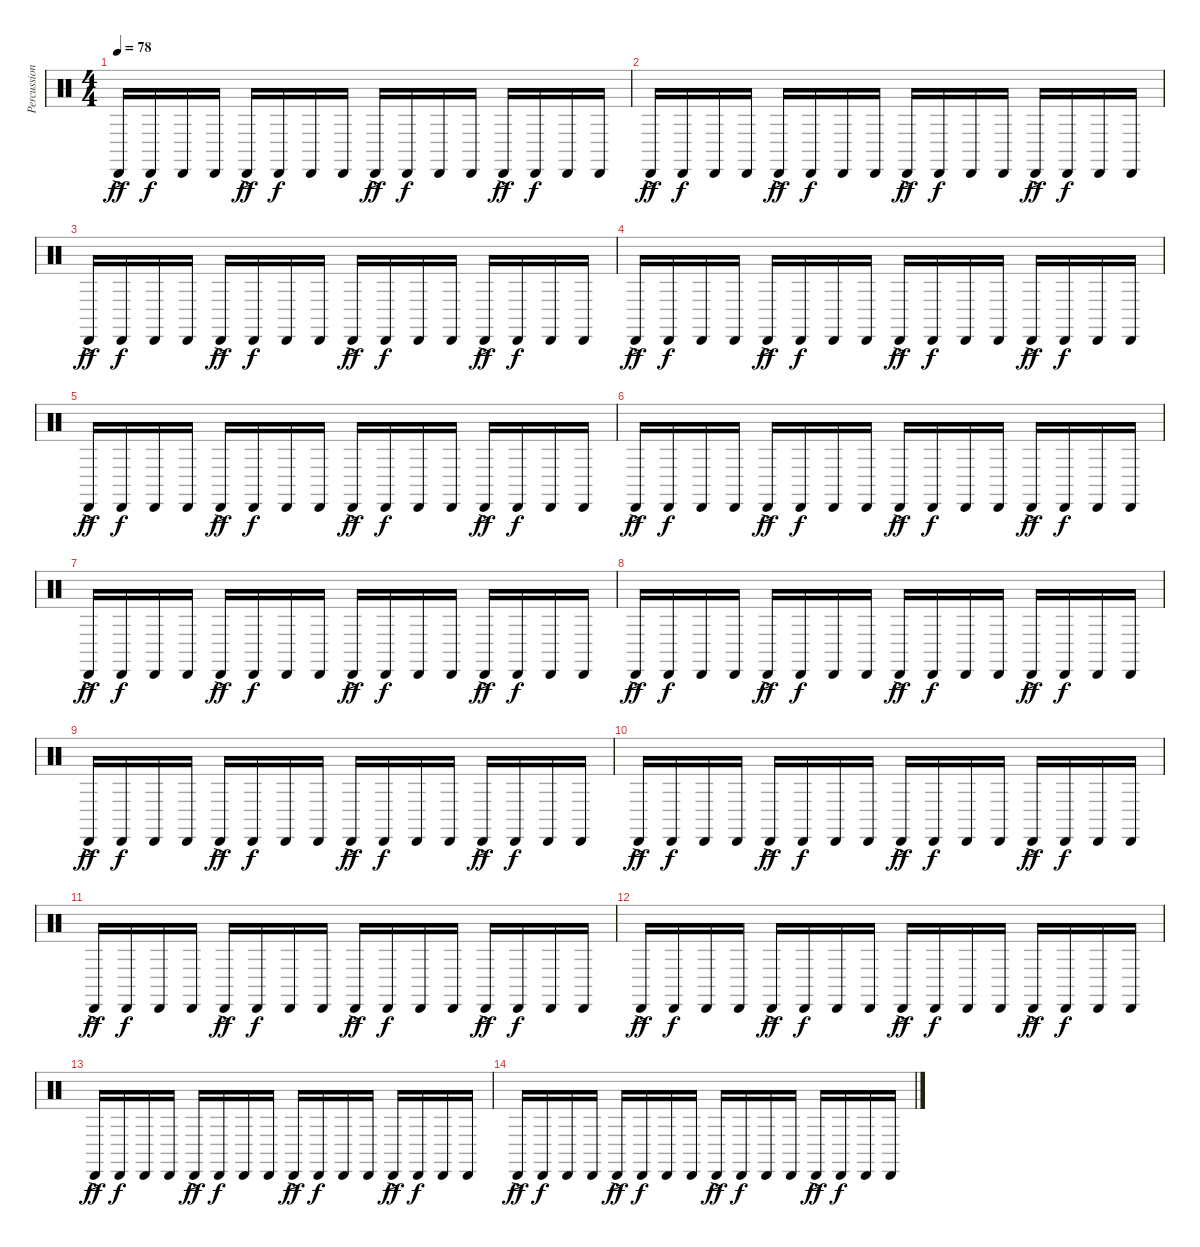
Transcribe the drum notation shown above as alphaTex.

\track ("Percussion" "Percussion") {instrument percussion}
\staff {score}
\articulation defaults
\ts (4 4)
\tempo 78
\clef neutral
\ks c "Cabasa (hit)"{ac}.16{dy ff} "Cabasa (hit)".16{dy f} "Cabasa (hit)".16 "Cabasa (hit)".16 "Cabasa (hit)"{ac}.16{dy ff} "Cabasa (hit)".16{dy f} "Cabasa (hit)".16 "Cabasa (hit)".16 "Cabasa (hit)"{ac}.16{dy ff} "Cabasa (hit)".16{dy f} "Cabasa (hit)".16 "Cabasa (hit)".16 "Cabasa (hit)"{ac}.16{dy ff} "Cabasa (hit)".16{dy f} "Cabasa (hit)".16 "Cabasa (hit)".16
|
"Cabasa (hit)"{ac}.16{dy ff} "Cabasa (hit)".16{dy f} "Cabasa (hit)".16 "Cabasa (hit)".16 "Cabasa (hit)"{ac}.16{dy ff} "Cabasa (hit)".16{dy f} "Cabasa (hit)".16 "Cabasa (hit)".16 "Cabasa (hit)"{ac}.16{dy ff} "Cabasa (hit)".16{dy f} "Cabasa (hit)".16 "Cabasa (hit)".16 "Cabasa (hit)"{ac}.16{dy ff} "Cabasa (hit)".16{dy f} "Cabasa (hit)".16 "Cabasa (hit)".16 |
"Cabasa (hit)"{ac}.16{dy ff} "Cabasa (hit)".16{dy f} "Cabasa (hit)".16 "Cabasa (hit)".16 "Cabasa (hit)"{ac}.16{dy ff} "Cabasa (hit)".16{dy f} "Cabasa (hit)".16 "Cabasa (hit)".16 "Cabasa (hit)"{ac}.16{dy ff} "Cabasa (hit)".16{dy f} "Cabasa (hit)".16 "Cabasa (hit)".16 "Cabasa (hit)"{ac}.16{dy ff} "Cabasa (hit)".16{dy f} "Cabasa (hit)".16 "Cabasa (hit)".16 |
"Cabasa (hit)"{ac}.16{dy ff} "Cabasa (hit)".16{dy f} "Cabasa (hit)".16 "Cabasa (hit)".16 "Cabasa (hit)"{ac}.16{dy ff} "Cabasa (hit)".16{dy f} "Cabasa (hit)".16 "Cabasa (hit)".16 "Cabasa (hit)"{ac}.16{dy ff} "Cabasa (hit)".16{dy f} "Cabasa (hit)".16 "Cabasa (hit)".16 "Cabasa (hit)"{ac}.16{dy ff} "Cabasa (hit)".16{dy f} "Cabasa (hit)".16 "Cabasa (hit)".16 |
"Cabasa (hit)"{ac}.16{dy ff} "Cabasa (hit)".16{dy f} "Cabasa (hit)".16 "Cabasa (hit)".16 "Cabasa (hit)"{ac}.16{dy ff} "Cabasa (hit)".16{dy f} "Cabasa (hit)".16 "Cabasa (hit)".16 "Cabasa (hit)"{ac}.16{dy ff} "Cabasa (hit)".16{dy f} "Cabasa (hit)".16 "Cabasa (hit)".16 "Cabasa (hit)"{ac}.16{dy ff} "Cabasa (hit)".16{dy f} "Cabasa (hit)".16 "Cabasa (hit)".16 |
"Cabasa (hit)"{ac}.16{dy ff} "Cabasa (hit)".16{dy f} "Cabasa (hit)".16 "Cabasa (hit)".16 "Cabasa (hit)"{ac}.16{dy ff} "Cabasa (hit)".16{dy f} "Cabasa (hit)".16 "Cabasa (hit)".16 "Cabasa (hit)"{ac}.16{dy ff} "Cabasa (hit)".16{dy f} "Cabasa (hit)".16 "Cabasa (hit)".16 "Cabasa (hit)"{ac}.16{dy ff} "Cabasa (hit)".16{dy f} "Cabasa (hit)".16 "Cabasa (hit)".16 |
"Cabasa (hit)"{ac}.16{dy ff} "Cabasa (hit)".16{dy f} "Cabasa (hit)".16 "Cabasa (hit)".16 "Cabasa (hit)"{ac}.16{dy ff} "Cabasa (hit)".16{dy f} "Cabasa (hit)".16 "Cabasa (hit)".16 "Cabasa (hit)"{ac}.16{dy ff} "Cabasa (hit)".16{dy f} "Cabasa (hit)".16 "Cabasa (hit)".16 "Cabasa (hit)"{ac}.16{dy ff} "Cabasa (hit)".16{dy f} "Cabasa (hit)".16 "Cabasa (hit)".16 |
"Cabasa (hit)"{ac}.16{dy ff} "Cabasa (hit)".16{dy f} "Cabasa (hit)".16 "Cabasa (hit)".16 "Cabasa (hit)"{ac}.16{dy ff} "Cabasa (hit)".16{dy f} "Cabasa (hit)".16 "Cabasa (hit)".16 "Cabasa (hit)"{ac}.16{dy ff} "Cabasa (hit)".16{dy f} "Cabasa (hit)".16 "Cabasa (hit)".16 "Cabasa (hit)"{ac}.16{dy ff} "Cabasa (hit)".16{dy f} "Cabasa (hit)".16 "Cabasa (hit)".16 |
"Cabasa (hit)"{ac}.16{dy ff} "Cabasa (hit)".16{dy f} "Cabasa (hit)".16 "Cabasa (hit)".16 "Cabasa (hit)"{ac}.16{dy ff} "Cabasa (hit)".16{dy f} "Cabasa (hit)".16 "Cabasa (hit)".16 "Cabasa (hit)"{ac}.16{dy ff} "Cabasa (hit)".16{dy f} "Cabasa (hit)".16 "Cabasa (hit)".16 "Cabasa (hit)"{ac}.16{dy ff} "Cabasa (hit)".16{dy f} "Cabasa (hit)".16 "Cabasa (hit)".16 |
"Cabasa (hit)"{ac}.16{dy ff} "Cabasa (hit)".16{dy f} "Cabasa (hit)".16 "Cabasa (hit)".16 "Cabasa (hit)"{ac}.16{dy ff} "Cabasa (hit)".16{dy f} "Cabasa (hit)".16 "Cabasa (hit)".16 "Cabasa (hit)"{ac}.16{dy ff} "Cabasa (hit)".16{dy f} "Cabasa (hit)".16 "Cabasa (hit)".16 "Cabasa (hit)"{ac}.16{dy ff} "Cabasa (hit)".16{dy f} "Cabasa (hit)".16 "Cabasa (hit)".16 |
"Cabasa (hit)"{ac}.16{dy ff} "Cabasa (hit)".16{dy f} "Cabasa (hit)".16 "Cabasa (hit)".16 "Cabasa (hit)"{ac}.16{dy ff} "Cabasa (hit)".16{dy f} "Cabasa (hit)".16 "Cabasa (hit)".16 "Cabasa (hit)"{ac}.16{dy ff} "Cabasa (hit)".16{dy f} "Cabasa (hit)".16 "Cabasa (hit)".16 "Cabasa (hit)"{ac}.16{dy ff} "Cabasa (hit)".16{dy f} "Cabasa (hit)".16 "Cabasa (hit)".16 |
"Cabasa (hit)"{ac}.16{dy ff} "Cabasa (hit)".16{dy f} "Cabasa (hit)".16 "Cabasa (hit)".16 "Cabasa (hit)"{ac}.16{dy ff} "Cabasa (hit)".16{dy f} "Cabasa (hit)".16 "Cabasa (hit)".16 "Cabasa (hit)"{ac}.16{dy ff} "Cabasa (hit)".16{dy f} "Cabasa (hit)".16 "Cabasa (hit)".16 "Cabasa (hit)"{ac}.16{dy ff} "Cabasa (hit)".16{dy f} "Cabasa (hit)".16 "Cabasa (hit)".16 |
"Cabasa (hit)"{ac}.16{dy ff} "Cabasa (hit)".16{dy f} "Cabasa (hit)".16 "Cabasa (hit)".16 "Cabasa (hit)"{ac}.16{dy ff} "Cabasa (hit)".16{dy f} "Cabasa (hit)".16 "Cabasa (hit)".16 "Cabasa (hit)"{ac}.16{dy ff} "Cabasa (hit)".16{dy f} "Cabasa (hit)".16 "Cabasa (hit)".16 "Cabasa (hit)"{ac}.16{dy ff} "Cabasa (hit)".16{dy f} "Cabasa (hit)".16 "Cabasa (hit)".16 |
"Cabasa (hit)"{ac}.16{dy ff} "Cabasa (hit)".16{dy f} "Cabasa (hit)".16 "Cabasa (hit)".16 "Cabasa (hit)"{ac}.16{dy ff} "Cabasa (hit)".16{dy f} "Cabasa (hit)".16 "Cabasa (hit)".16 "Cabasa (hit)"{ac}.16{dy ff} "Cabasa (hit)".16{dy f} "Cabasa (hit)".16 "Cabasa (hit)".16 "Cabasa (hit)"{ac}.16{dy ff} "Cabasa (hit)".16{dy f} "Cabasa (hit)".16 "Cabasa (hit)".16
